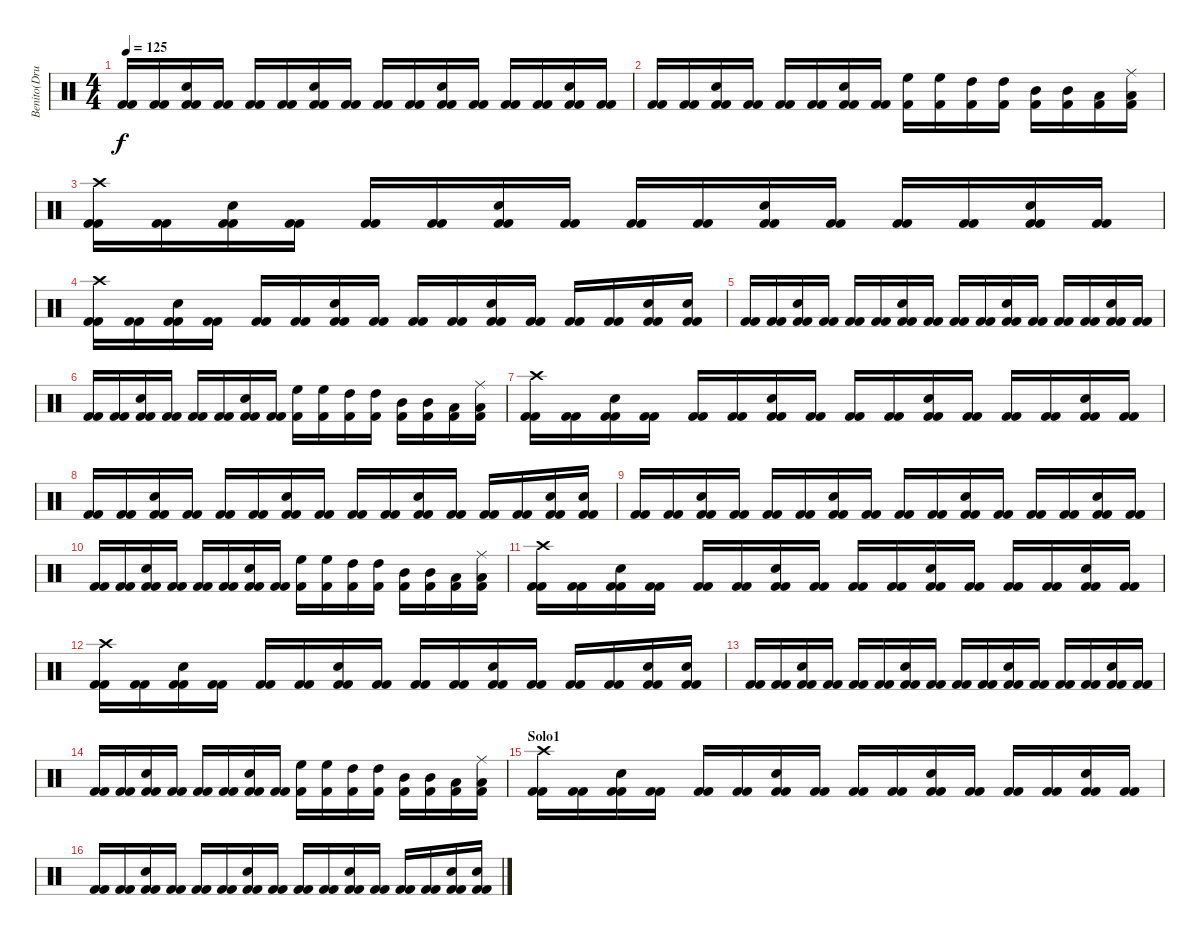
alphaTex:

\track ("Benito(Drums)" "Benito(Dru") {instrument percussion}
\staff {score}
\articulation defaults
\ts (4 4)
\tempo 125
\clef neutral
\ks c
("Kick (hit) 2" "Kick (hit) 2").16{dy f} ("Kick (hit) 2" "Kick (hit) 2").16 ("Kick (hit) 2" "Kick (hit) 2" "Electric Snare (hit)").16 ("Kick (hit) 2" "Kick (hit) 2").16 ("Kick (hit) 2" "Kick (hit) 2").16 ("Kick (hit) 2" "Kick (hit) 2").16 ("Kick (hit) 2" "Kick (hit) 2" "Electric Snare (hit)").16 ("Kick (hit) 2" "Kick (hit) 2").16 ("Kick (hit) 2" "Kick (hit) 2").16 ("Kick (hit) 2" "Kick (hit) 2").16 ("Kick (hit) 2" "Kick (hit) 2" "Electric Snare (hit)").16 ("Kick (hit) 2" "Kick (hit) 2").16 ("Kick (hit) 2" "Kick (hit) 2").16 ("Kick (hit) 2" "Kick (hit) 2").16 ("Kick (hit) 2" "Kick (hit) 2" "Electric Snare (hit)").16 ("Kick (hit) 2" "Kick (hit) 2").16 |
("Kick (hit) 2" "Kick (hit) 2").16 ("Kick (hit) 2" "Kick (hit) 2").16 ("Kick (hit) 2" "Kick (hit) 2" "Electric Snare (hit)").16 ("Kick (hit) 2" "Kick (hit) 2").16 ("Kick (hit) 2" "Kick (hit) 2").16 ("Kick (hit) 2" "Kick (hit) 2").16 ("Kick (hit) 2" "Kick (hit) 2" "Electric Snare (hit)").16 ("Kick (hit) 2" "Kick (hit) 2").16 ("Kick (hit) 2" "High Floor Tom (hit)").16 ("Kick (hit) 2" "High Floor Tom (hit)").16 ("Kick (hit) 2" "High Tom (hit)").16 ("Kick (hit) 2" "High Tom (hit)").16 ("Kick (hit) 2" "Mid Tom (hit)").16 ("Kick (hit) 2" "Mid Tom (hit)").16 ("Kick (hit) 2" "Low Tom (hit)").16 ("Kick (hit) 2" "Low Tom (hit)" "Ride (middle)").16 |
("Kick (hit) 2" "Kick (hit) 2" "Crash high (hit)").16 ("Kick (hit) 2" "Kick (hit) 2").16 ("Kick (hit) 2" "Kick (hit) 2" "Electric Snare (hit)").16 ("Kick (hit) 2" "Kick (hit) 2").16 ("Kick (hit) 2" "Kick (hit) 2").16 ("Kick (hit) 2" "Kick (hit) 2").16 ("Kick (hit) 2" "Kick (hit) 2" "Electric Snare (hit)").16 ("Kick (hit) 2" "Kick (hit) 2").16 ("Kick (hit) 2" "Kick (hit) 2").16 ("Kick (hit) 2" "Kick (hit) 2").16 ("Kick (hit) 2" "Kick (hit) 2" "Electric Snare (hit)").16 ("Kick (hit) 2" "Kick (hit) 2").16 ("Kick (hit) 2" "Kick (hit) 2").16 ("Kick (hit) 2" "Kick (hit) 2").16 ("Kick (hit) 2" "Kick (hit) 2" "Electric Snare (hit)").16 ("Kick (hit) 2" "Kick (hit) 2").16 |
("Kick (hit) 2" "Kick (hit) 2" "Crash high (hit)").16 ("Kick (hit) 2" "Kick (hit) 2").16 ("Kick (hit) 2" "Kick (hit) 2" "Electric Snare (hit)").16 ("Kick (hit) 2" "Kick (hit) 2").16 ("Kick (hit) 2" "Kick (hit) 2").16 ("Kick (hit) 2" "Kick (hit) 2").16 ("Kick (hit) 2" "Kick (hit) 2" "Electric Snare (hit)").16 ("Kick (hit) 2" "Kick (hit) 2").16 ("Kick (hit) 2" "Kick (hit) 2").16 ("Kick (hit) 2" "Kick (hit) 2").16 ("Kick (hit) 2" "Kick (hit) 2" "Electric Snare (hit)").16 ("Kick (hit) 2" "Kick (hit) 2").16 ("Kick (hit) 2" "Kick (hit) 2").16 ("Kick (hit) 2" "Kick (hit) 2").16 ("Kick (hit) 2" "Kick (hit) 2" "Electric Snare (hit)").16 ("Kick (hit) 2" "Kick (hit) 2" "Electric Snare (hit)").16 |
("Kick (hit) 2" "Kick (hit) 2").16 ("Kick (hit) 2" "Kick (hit) 2").16 ("Kick (hit) 2" "Kick (hit) 2" "Electric Snare (hit)").16 ("Kick (hit) 2" "Kick (hit) 2").16 ("Kick (hit) 2" "Kick (hit) 2").16 ("Kick (hit) 2" "Kick (hit) 2").16 ("Kick (hit) 2" "Kick (hit) 2" "Electric Snare (hit)").16 ("Kick (hit) 2" "Kick (hit) 2").16 ("Kick (hit) 2" "Kick (hit) 2").16 ("Kick (hit) 2" "Kick (hit) 2").16 ("Kick (hit) 2" "Kick (hit) 2" "Electric Snare (hit)").16 ("Kick (hit) 2" "Kick (hit) 2").16 ("Kick (hit) 2" "Kick (hit) 2").16 ("Kick (hit) 2" "Kick (hit) 2").16 ("Kick (hit) 2" "Kick (hit) 2" "Electric Snare (hit)").16 ("Kick (hit) 2" "Kick (hit) 2").16 |
("Kick (hit) 2" "Kick (hit) 2").16 ("Kick (hit) 2" "Kick (hit) 2").16 ("Kick (hit) 2" "Kick (hit) 2" "Electric Snare (hit)").16 ("Kick (hit) 2" "Kick (hit) 2").16 ("Kick (hit) 2" "Kick (hit) 2").16 ("Kick (hit) 2" "Kick (hit) 2").16 ("Kick (hit) 2" "Kick (hit) 2" "Electric Snare (hit)").16 ("Kick (hit) 2" "Kick (hit) 2").16 ("Kick (hit) 2" "High Floor Tom (hit)").16 ("Kick (hit) 2" "High Floor Tom (hit)").16 ("Kick (hit) 2" "High Tom (hit)").16 ("Kick (hit) 2" "High Tom (hit)").16 ("Kick (hit) 2" "Mid Tom (hit)").16 ("Kick (hit) 2" "Mid Tom (hit)").16 ("Kick (hit) 2" "Low Tom (hit)").16 ("Kick (hit) 2" "Low Tom (hit)" "Ride (middle)").16 |
("Kick (hit) 2" "Kick (hit) 2" "Crash high (hit)").16 ("Kick (hit) 2" "Kick (hit) 2").16 ("Kick (hit) 2" "Kick (hit) 2" "Electric Snare (hit)").16 ("Kick (hit) 2" "Kick (hit) 2").16 ("Kick (hit) 2" "Kick (hit) 2").16 ("Kick (hit) 2" "Kick (hit) 2").16 ("Kick (hit) 2" "Kick (hit) 2" "Electric Snare (hit)").16 ("Kick (hit) 2" "Kick (hit) 2").16 ("Kick (hit) 2" "Kick (hit) 2").16 ("Kick (hit) 2" "Kick (hit) 2").16 ("Kick (hit) 2" "Kick (hit) 2" "Electric Snare (hit)").16 ("Kick (hit) 2" "Kick (hit) 2").16 ("Kick (hit) 2" "Kick (hit) 2").16 ("Kick (hit) 2" "Kick (hit) 2").16 ("Kick (hit) 2" "Kick (hit) 2" "Electric Snare (hit)").16 ("Kick (hit) 2" "Kick (hit) 2").16 |
("Kick (hit) 2" "Kick (hit) 2").16 ("Kick (hit) 2" "Kick (hit) 2").16 ("Kick (hit) 2" "Kick (hit) 2" "Electric Snare (hit)").16 ("Kick (hit) 2" "Kick (hit) 2").16 ("Kick (hit) 2" "Kick (hit) 2").16 ("Kick (hit) 2" "Kick (hit) 2").16 ("Kick (hit) 2" "Kick (hit) 2" "Electric Snare (hit)").16 ("Kick (hit) 2" "Kick (hit) 2").16 ("Kick (hit) 2" "Kick (hit) 2").16 ("Kick (hit) 2" "Kick (hit) 2").16 ("Kick (hit) 2" "Kick (hit) 2" "Electric Snare (hit)").16 ("Kick (hit) 2" "Kick (hit) 2").16 ("Kick (hit) 2" "Kick (hit) 2").16 ("Kick (hit) 2" "Kick (hit) 2").16 ("Kick (hit) 2" "Kick (hit) 2" "Electric Snare (hit)").16 ("Kick (hit) 2" "Kick (hit) 2" "Electric Snare (hit)").16 |
("Kick (hit) 2" "Kick (hit) 2").16 ("Kick (hit) 2" "Kick (hit) 2").16 ("Kick (hit) 2" "Kick (hit) 2" "Electric Snare (hit)").16 ("Kick (hit) 2" "Kick (hit) 2").16 ("Kick (hit) 2" "Kick (hit) 2").16 ("Kick (hit) 2" "Kick (hit) 2").16 ("Kick (hit) 2" "Kick (hit) 2" "Electric Snare (hit)").16 ("Kick (hit) 2" "Kick (hit) 2").16 ("Kick (hit) 2" "Kick (hit) 2").16 ("Kick (hit) 2" "Kick (hit) 2").16 ("Kick (hit) 2" "Kick (hit) 2" "Electric Snare (hit)").16 ("Kick (hit) 2" "Kick (hit) 2").16 ("Kick (hit) 2" "Kick (hit) 2").16 ("Kick (hit) 2" "Kick (hit) 2").16 ("Kick (hit) 2" "Kick (hit) 2" "Electric Snare (hit)").16 ("Kick (hit) 2" "Kick (hit) 2").16 |
("Kick (hit) 2" "Kick (hit) 2").16 ("Kick (hit) 2" "Kick (hit) 2").16 ("Kick (hit) 2" "Kick (hit) 2" "Electric Snare (hit)").16 ("Kick (hit) 2" "Kick (hit) 2").16 ("Kick (hit) 2" "Kick (hit) 2").16 ("Kick (hit) 2" "Kick (hit) 2").16 ("Kick (hit) 2" "Kick (hit) 2" "Electric Snare (hit)").16 ("Kick (hit) 2" "Kick (hit) 2").16 ("Kick (hit) 2" "High Floor Tom (hit)").16 ("Kick (hit) 2" "High Floor Tom (hit)").16 ("Kick (hit) 2" "High Tom (hit)").16 ("Kick (hit) 2" "High Tom (hit)").16 ("Kick (hit) 2" "Mid Tom (hit)").16 ("Kick (hit) 2" "Mid Tom (hit)").16 ("Kick (hit) 2" "Low Tom (hit)").16 ("Kick (hit) 2" "Low Tom (hit)" "Ride (middle)").16 |
("Kick (hit) 2" "Kick (hit) 2" "Crash high (hit)").16 ("Kick (hit) 2" "Kick (hit) 2").16 ("Kick (hit) 2" "Kick (hit) 2" "Electric Snare (hit)").16 ("Kick (hit) 2" "Kick (hit) 2").16 ("Kick (hit) 2" "Kick (hit) 2").16 ("Kick (hit) 2" "Kick (hit) 2").16 ("Kick (hit) 2" "Kick (hit) 2" "Electric Snare (hit)").16 ("Kick (hit) 2" "Kick (hit) 2").16 ("Kick (hit) 2" "Kick (hit) 2").16 ("Kick (hit) 2" "Kick (hit) 2").16 ("Kick (hit) 2" "Kick (hit) 2" "Electric Snare (hit)").16 ("Kick (hit) 2" "Kick (hit) 2").16 ("Kick (hit) 2" "Kick (hit) 2").16 ("Kick (hit) 2" "Kick (hit) 2").16 ("Kick (hit) 2" "Kick (hit) 2" "Electric Snare (hit)").16 ("Kick (hit) 2" "Kick (hit) 2").16 |
("Kick (hit) 2" "Kick (hit) 2" "Crash high (hit)").16 ("Kick (hit) 2" "Kick (hit) 2").16 ("Kick (hit) 2" "Kick (hit) 2" "Electric Snare (hit)").16 ("Kick (hit) 2" "Kick (hit) 2").16 ("Kick (hit) 2" "Kick (hit) 2").16 ("Kick (hit) 2" "Kick (hit) 2").16 ("Kick (hit) 2" "Kick (hit) 2" "Electric Snare (hit)").16 ("Kick (hit) 2" "Kick (hit) 2").16 ("Kick (hit) 2" "Kick (hit) 2").16 ("Kick (hit) 2" "Kick (hit) 2").16 ("Kick (hit) 2" "Kick (hit) 2" "Electric Snare (hit)").16 ("Kick (hit) 2" "Kick (hit) 2").16 ("Kick (hit) 2" "Kick (hit) 2").16 ("Kick (hit) 2" "Kick (hit) 2").16 ("Kick (hit) 2" "Kick (hit) 2" "Electric Snare (hit)").16 ("Kick (hit) 2" "Kick (hit) 2" "Electric Snare (hit)").16 |
("Kick (hit) 2" "Kick (hit) 2").16 ("Kick (hit) 2" "Kick (hit) 2").16 ("Kick (hit) 2" "Kick (hit) 2" "Electric Snare (hit)").16 ("Kick (hit) 2" "Kick (hit) 2").16 ("Kick (hit) 2" "Kick (hit) 2").16 ("Kick (hit) 2" "Kick (hit) 2").16 ("Kick (hit) 2" "Kick (hit) 2" "Electric Snare (hit)").16 ("Kick (hit) 2" "Kick (hit) 2").16 ("Kick (hit) 2" "Kick (hit) 2").16 ("Kick (hit) 2" "Kick (hit) 2").16 ("Kick (hit) 2" "Kick (hit) 2" "Electric Snare (hit)").16 ("Kick (hit) 2" "Kick (hit) 2").16 ("Kick (hit) 2" "Kick (hit) 2").16 ("Kick (hit) 2" "Kick (hit) 2").16 ("Kick (hit) 2" "Kick (hit) 2" "Electric Snare (hit)").16 ("Kick (hit) 2" "Kick (hit) 2").16 |
("Kick (hit) 2" "Kick (hit) 2").16 ("Kick (hit) 2" "Kick (hit) 2").16 ("Kick (hit) 2" "Kick (hit) 2" "Electric Snare (hit)").16 ("Kick (hit) 2" "Kick (hit) 2").16 ("Kick (hit) 2" "Kick (hit) 2").16 ("Kick (hit) 2" "Kick (hit) 2").16 ("Kick (hit) 2" "Kick (hit) 2" "Electric Snare (hit)").16 ("Kick (hit) 2" "Kick (hit) 2").16 ("Kick (hit) 2" "High Floor Tom (hit)").16 ("Kick (hit) 2" "High Floor Tom (hit)").16 ("Kick (hit) 2" "High Tom (hit)").16 ("Kick (hit) 2" "High Tom (hit)").16 ("Kick (hit) 2" "Mid Tom (hit)").16 ("Kick (hit) 2" "Mid Tom (hit)").16 ("Kick (hit) 2" "Low Tom (hit)").16 ("Kick (hit) 2" "Low Tom (hit)" "Ride (middle)").16 |
\section ("" "Solo1")
("Kick (hit) 2" "Kick (hit) 2" "Crash high (hit)").16 ("Kick (hit) 2" "Kick (hit) 2").16 ("Kick (hit) 2" "Kick (hit) 2" "Electric Snare (hit)").16 ("Kick (hit) 2" "Kick (hit) 2").16 ("Kick (hit) 2" "Kick (hit) 2").16 ("Kick (hit) 2" "Kick (hit) 2").16 ("Kick (hit) 2" "Kick (hit) 2" "Electric Snare (hit)").16 ("Kick (hit) 2" "Kick (hit) 2").16 ("Kick (hit) 2" "Kick (hit) 2").16 ("Kick (hit) 2" "Kick (hit) 2").16 ("Kick (hit) 2" "Kick (hit) 2" "Electric Snare (hit)").16 ("Kick (hit) 2" "Kick (hit) 2").16 ("Kick (hit) 2" "Kick (hit) 2").16 ("Kick (hit) 2" "Kick (hit) 2").16 ("Kick (hit) 2" "Kick (hit) 2" "Electric Snare (hit)").16 ("Kick (hit) 2" "Kick (hit) 2").16 |
("Kick (hit) 2" "Kick (hit) 2").16 ("Kick (hit) 2" "Kick (hit) 2").16 ("Kick (hit) 2" "Kick (hit) 2" "Electric Snare (hit)").16 ("Kick (hit) 2" "Kick (hit) 2").16 ("Kick (hit) 2" "Kick (hit) 2").16 ("Kick (hit) 2" "Kick (hit) 2").16 ("Kick (hit) 2" "Kick (hit) 2" "Electric Snare (hit)").16 ("Kick (hit) 2" "Kick (hit) 2").16 ("Kick (hit) 2" "Kick (hit) 2").16 ("Kick (hit) 2" "Kick (hit) 2").16 ("Kick (hit) 2" "Kick (hit) 2" "Electric Snare (hit)").16 ("Kick (hit) 2" "Kick (hit) 2").16 ("Kick (hit) 2" "Kick (hit) 2").16 ("Kick (hit) 2" "Kick (hit) 2").16 ("Kick (hit) 2" "Kick (hit) 2" "Electric Snare (hit)").16 ("Kick (hit) 2" "Kick (hit) 2" "Electric Snare (hit)").16
